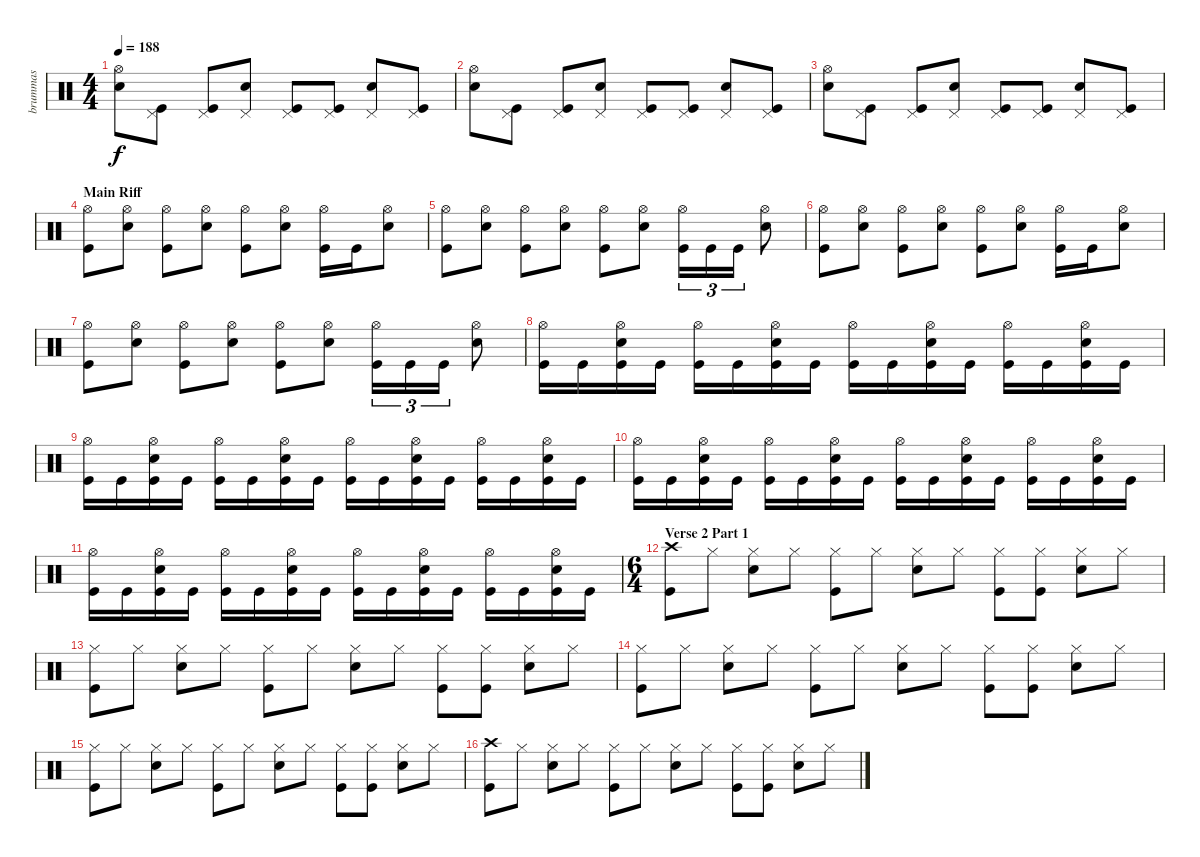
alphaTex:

\track ("brummas" "brummas") {instrument percussion}
\staff {score}
\articulation defaults
\ts (4 4)
\tempo 188
\clef neutral
\ks c
("Hi-Hat (open)" "Snare (hit) 2").8{dy f} ("Pedal Hi-Hat (hit)" "Kick (hit)").8 ("Pedal Hi-Hat (hit)" "Kick (hit)").8 ("Pedal Hi-Hat (hit)" "Snare (hit) 2").8 ("Pedal Hi-Hat (hit)" "Kick (hit)").8 ("Pedal Hi-Hat (hit)" "Kick (hit)").8 ("Pedal Hi-Hat (hit)" "Snare (hit) 2").8 ("Pedal Hi-Hat (hit)" "Kick (hit)").8 |
("Hi-Hat (open)" "Snare (hit) 2").8 ("Pedal Hi-Hat (hit)" "Kick (hit)").8 ("Pedal Hi-Hat (hit)" "Kick (hit)").8 ("Pedal Hi-Hat (hit)" "Snare (hit) 2").8 ("Pedal Hi-Hat (hit)" "Kick (hit)").8 ("Pedal Hi-Hat (hit)" "Kick (hit)").8 ("Pedal Hi-Hat (hit)" "Snare (hit) 2").8 ("Pedal Hi-Hat (hit)" "Kick (hit)").8 |
("Hi-Hat (open)" "Snare (hit) 2").8 ("Pedal Hi-Hat (hit)" "Kick (hit)").8 ("Pedal Hi-Hat (hit)" "Kick (hit)").8 ("Pedal Hi-Hat (hit)" "Snare (hit) 2").8 ("Pedal Hi-Hat (hit)" "Kick (hit)").8 ("Pedal Hi-Hat (hit)" "Kick (hit)").8 ("Pedal Hi-Hat (hit)" "Snare (hit) 2").8 ("Pedal Hi-Hat (hit)" "Kick (hit)").8 |
\section ("" "Main Riff")
("Hi-Hat (open)" "Kick (hit)").8 ("Hi-Hat (open)" "Snare (hit) 2").8 ("Hi-Hat (open)" "Kick (hit)").8 ("Hi-Hat (open)" "Snare (hit) 2").8 ("Hi-Hat (open)" "Kick (hit)").8 ("Hi-Hat (open)" "Snare (hit) 2").8 ("Hi-Hat (open)" "Kick (hit)").16 "Kick (hit)".16 ("Hi-Hat (open)" "Snare (hit) 2").8 |
("Hi-Hat (open)" "Kick (hit)").8 ("Hi-Hat (open)" "Snare (hit) 2").8 ("Hi-Hat (open)" "Kick (hit)").8 ("Hi-Hat (open)" "Snare (hit) 2").8 ("Hi-Hat (open)" "Kick (hit)").8 ("Hi-Hat (open)" "Snare (hit) 2").8 ("Hi-Hat (open)" "Kick (hit)").16{tu (3 2)} "Kick (hit)".16{tu (3 2)} "Kick (hit)".16{tu (3 2)} ("Hi-Hat (open)" "Snare (hit) 2").8 |
("Hi-Hat (open)" "Kick (hit)").8 ("Hi-Hat (open)" "Snare (hit) 2").8 ("Hi-Hat (open)" "Kick (hit)").8 ("Hi-Hat (open)" "Snare (hit) 2").8 ("Hi-Hat (open)" "Kick (hit)").8 ("Hi-Hat (open)" "Snare (hit) 2").8 ("Hi-Hat (open)" "Kick (hit)").16 "Kick (hit)".16 ("Hi-Hat (open)" "Snare (hit) 2").8 |
("Hi-Hat (open)" "Kick (hit)").8 ("Hi-Hat (open)" "Snare (hit) 2").8 ("Hi-Hat (open)" "Kick (hit)").8 ("Hi-Hat (open)" "Snare (hit) 2").8 ("Hi-Hat (open)" "Kick (hit)").8 ("Hi-Hat (open)" "Snare (hit) 2").8 ("Hi-Hat (open)" "Kick (hit)").16{tu (3 2)} "Kick (hit)".16{tu (3 2)} "Kick (hit)".16{tu (3 2)} ("Hi-Hat (open)" "Snare (hit) 2").8 |
("Hi-Hat (open)" "Kick (hit)").16 "Kick (hit)".16 ("Hi-Hat (open)" "Snare (hit) 2" "Kick (hit)").16 "Kick (hit)".16 ("Hi-Hat (open)" "Kick (hit)").16 "Kick (hit)".16 ("Hi-Hat (open)" "Snare (hit) 2" "Kick (hit)").16 "Kick (hit)".16 ("Hi-Hat (open)" "Kick (hit)").16 "Kick (hit)".16 ("Hi-Hat (open)" "Snare (hit) 2" "Kick (hit)").16 "Kick (hit)".16 ("Hi-Hat (open)" "Kick (hit)").16 "Kick (hit)".16 ("Hi-Hat (open)" "Snare (hit) 2" "Kick (hit)").16 "Kick (hit)".16 |
("Hi-Hat (open)" "Kick (hit)").16 "Kick (hit)".16 ("Hi-Hat (open)" "Snare (hit) 2" "Kick (hit)").16 "Kick (hit)".16 ("Hi-Hat (open)" "Kick (hit)").16 "Kick (hit)".16 ("Hi-Hat (open)" "Snare (hit) 2" "Kick (hit)").16 "Kick (hit)".16 ("Hi-Hat (open)" "Kick (hit)").16 "Kick (hit)".16 ("Hi-Hat (open)" "Snare (hit) 2" "Kick (hit)").16 "Kick (hit)".16 ("Hi-Hat (open)" "Kick (hit)").16 "Kick (hit)".16 ("Hi-Hat (open)" "Snare (hit) 2" "Kick (hit)").16 "Kick (hit)".16 |
("Hi-Hat (open)" "Kick (hit)").16 "Kick (hit)".16 ("Hi-Hat (open)" "Snare (hit) 2" "Kick (hit)").16 "Kick (hit)".16 ("Hi-Hat (open)" "Kick (hit)").16 "Kick (hit)".16 ("Hi-Hat (open)" "Snare (hit) 2" "Kick (hit)").16 "Kick (hit)".16 ("Hi-Hat (open)" "Kick (hit)").16 "Kick (hit)".16 ("Hi-Hat (open)" "Snare (hit) 2" "Kick (hit)").16 "Kick (hit)".16 ("Hi-Hat (open)" "Kick (hit)").16 "Kick (hit)".16 ("Hi-Hat (open)" "Snare (hit) 2" "Kick (hit)").16 "Kick (hit)".16 |
("Hi-Hat (open)" "Kick (hit)").16 "Kick (hit)".16 ("Hi-Hat (open)" "Snare (hit) 2" "Kick (hit)").16 "Kick (hit)".16 ("Hi-Hat (open)" "Kick (hit)").16 "Kick (hit)".16 ("Hi-Hat (open)" "Snare (hit) 2" "Kick (hit)").16 "Kick (hit)".16 ("Hi-Hat (open)" "Kick (hit)").16 "Kick (hit)".16 ("Hi-Hat (open)" "Snare (hit) 2" "Kick (hit)").16 "Kick (hit)".16 ("Hi-Hat (open)" "Kick (hit)").16 "Kick (hit)".16 ("Hi-Hat (open)" "Snare (hit) 2" "Kick (hit)").16 "Kick (hit)".16 |
\ts (6 4)
\section ("" "Verse 2 Part 1")
("Crash high (hit)" "Kick (hit)").8 "Hi-Hat (closed)".8 ("Hi-Hat (closed)" "Snare (hit) 2").8 "Hi-Hat (closed)".8 ("Hi-Hat (closed)" "Kick (hit)").8 "Hi-Hat (closed)".8 ("Hi-Hat (closed)" "Snare (hit) 2").8 "Hi-Hat (closed)".8 ("Hi-Hat (closed)" "Kick (hit)").8 ("Hi-Hat (closed)" "Kick (hit)").8 ("Hi-Hat (closed)" "Snare (hit) 2").8 "Hi-Hat (closed)".8 |
("Hi-Hat (closed)" "Kick (hit)").8 "Hi-Hat (closed)".8 ("Hi-Hat (closed)" "Snare (hit) 2").8 "Hi-Hat (closed)".8 ("Hi-Hat (closed)" "Kick (hit)").8 "Hi-Hat (closed)".8 ("Hi-Hat (closed)" "Snare (hit) 2").8 "Hi-Hat (closed)".8 ("Hi-Hat (closed)" "Kick (hit)").8 ("Hi-Hat (closed)" "Kick (hit)").8 ("Hi-Hat (closed)" "Snare (hit) 2").8 "Hi-Hat (closed)".8 |
("Hi-Hat (closed)" "Kick (hit)").8 "Hi-Hat (closed)".8 ("Hi-Hat (closed)" "Snare (hit) 2").8 "Hi-Hat (closed)".8 ("Hi-Hat (closed)" "Kick (hit)").8 "Hi-Hat (closed)".8 ("Hi-Hat (closed)" "Snare (hit) 2").8 "Hi-Hat (closed)".8 ("Hi-Hat (closed)" "Kick (hit)").8 ("Hi-Hat (closed)" "Kick (hit)").8 ("Hi-Hat (closed)" "Snare (hit) 2").8 "Hi-Hat (closed)".8 |
("Hi-Hat (closed)" "Kick (hit)").8 "Hi-Hat (closed)".8 ("Hi-Hat (closed)" "Snare (hit) 2").8 "Hi-Hat (closed)".8 ("Hi-Hat (closed)" "Kick (hit)").8 "Hi-Hat (closed)".8 ("Hi-Hat (closed)" "Snare (hit) 2").8 "Hi-Hat (closed)".8 ("Hi-Hat (closed)" "Kick (hit)").8 ("Hi-Hat (closed)" "Kick (hit)").8 ("Hi-Hat (closed)" "Snare (hit) 2").8 "Hi-Hat (closed)".8 |
("Crash high (hit)" "Kick (hit)").8 "Hi-Hat (closed)".8 ("Hi-Hat (closed)" "Snare (hit) 2").8 "Hi-Hat (closed)".8 ("Hi-Hat (closed)" "Kick (hit)").8 "Hi-Hat (closed)".8 ("Hi-Hat (closed)" "Snare (hit) 2").8 "Hi-Hat (closed)".8 ("Hi-Hat (closed)" "Kick (hit)").8 ("Hi-Hat (closed)" "Kick (hit)").8 ("Hi-Hat (closed)" "Snare (hit) 2").8 "Hi-Hat (closed)".8
